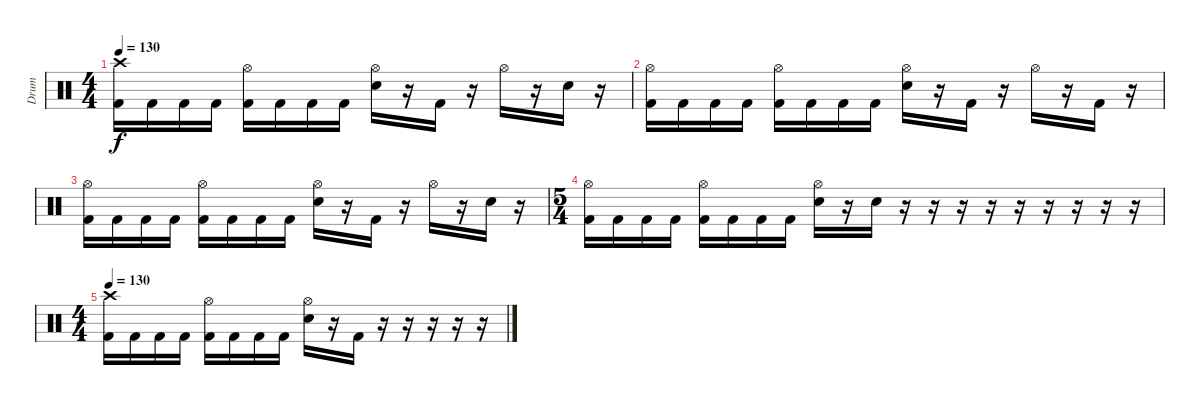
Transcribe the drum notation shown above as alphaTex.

\track ("Drum" "Drum") {instrument percussion}
\staff {score}
\articulation defaults
\ts (4 4)
\tempo 130
\clef neutral
\ks c
("Crash high (hit)" "Kick (hit) 2").16{dy f} "Kick (hit) 2".16 "Kick (hit) 2".16 "Kick (hit) 2".16 ("Hi-Hat (open)" "Kick (hit) 2").16 "Kick (hit) 2".16 "Kick (hit) 2".16 "Kick (hit) 2".16 ("Hi-Hat (open)" "Snare (hit) 2").16 r.16 "Kick (hit) 2".16 r.16 "Hi-Hat (open)".16 r.16 "Snare (hit) 2".16 r.16 |
("Hi-Hat (open)" "Kick (hit) 2").16 "Kick (hit) 2".16 "Kick (hit) 2".16 "Kick (hit) 2".16 ("Hi-Hat (open)" "Kick (hit) 2").16 "Kick (hit) 2".16 "Kick (hit) 2".16 "Kick (hit) 2".16 ("Hi-Hat (open)" "Snare (hit) 2").16 r.16 "Kick (hit) 2".16 r.16 "Hi-Hat (open)".16 r.16 "Kick (hit) 2".16 r.16 |
("Hi-Hat (open)" "Kick (hit) 2").16 "Kick (hit) 2".16 "Kick (hit) 2".16 "Kick (hit) 2".16 ("Hi-Hat (open)" "Kick (hit) 2").16 "Kick (hit) 2".16 "Kick (hit) 2".16 "Kick (hit) 2".16 ("Hi-Hat (open)" "Snare (hit) 2").16 r.16 "Kick (hit) 2".16 r.16 "Hi-Hat (open)".16 r.16 "Snare (hit) 2".16 r.16 |
\ts (5 4)
("Hi-Hat (open)" "Kick (hit) 2").16 "Kick (hit) 2".16 "Kick (hit) 2".16 "Kick (hit) 2".16 ("Hi-Hat (open)" "Kick (hit) 2").16 "Kick (hit) 2".16 "Kick (hit) 2".16 "Kick (hit) 2".16 ("Hi-Hat (open)" "Snare (hit) 2").16 r.16 "Snare (hit) 2".16 r.16 r.16 r.16 r.16 r.16 r.16 r.16 r.16 r.16 |
\ts (4 4)
\tempo 130
("Crash high (hit)" "Kick (hit) 2").16 "Kick (hit) 2".16 "Kick (hit) 2".16 "Kick (hit) 2".16 ("Hi-Hat (open)" "Kick (hit) 2").16 "Kick (hit) 2".16 "Kick (hit) 2".16 "Kick (hit) 2".16 ("Hi-Hat (open)" "Snare (hit) 2").16 r.16 "Kick (hit) 2".16 r.16 r.16 r.16 r.16 r.16
